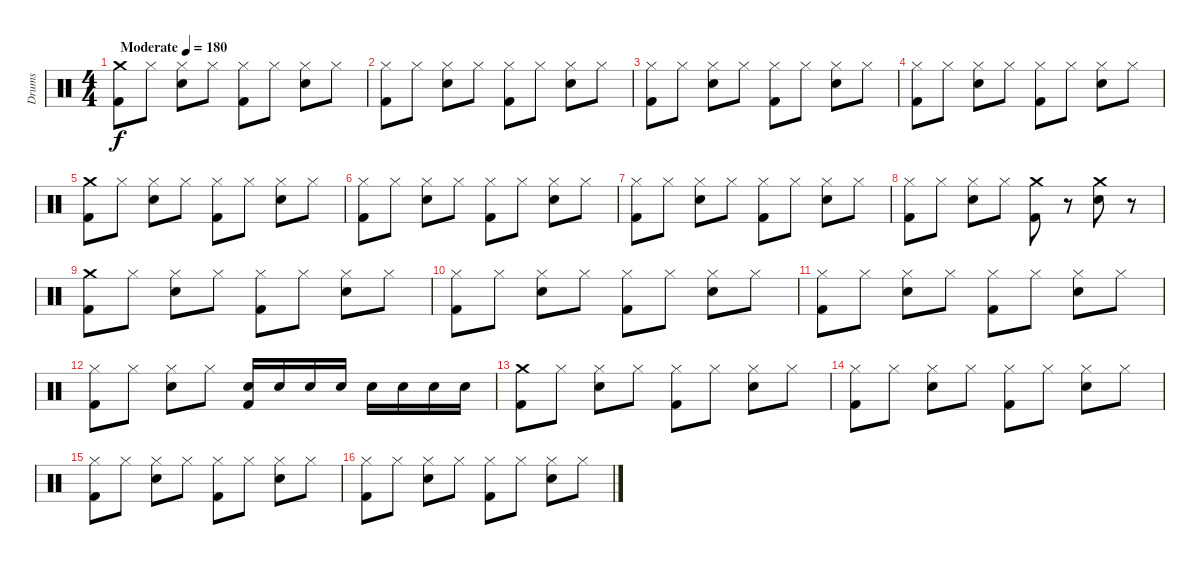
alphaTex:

\track ("Drums" "Drums") {instrument percussion}
\staff {score}
\articulation defaults
\ts (4 4)
\tempo (180 "Moderate")
\clef neutral
\ks c
("Crash medium (hit)" "Kick (hit) 2").8{dy f} "Hi-Hat (closed)".8 ("Hi-Hat (closed)" "Electric Snare (hit)").8 "Hi-Hat (closed)".8 ("Hi-Hat (closed)" "Kick (hit) 2").8 "Hi-Hat (closed)".8 ("Hi-Hat (closed)" "Electric Snare (hit)").8 "Hi-Hat (closed)".8 |
("Hi-Hat (closed)" "Kick (hit) 2").8 "Hi-Hat (closed)".8 ("Hi-Hat (closed)" "Electric Snare (hit)").8 "Hi-Hat (closed)".8 ("Hi-Hat (closed)" "Kick (hit) 2").8 "Hi-Hat (closed)".8 ("Hi-Hat (closed)" "Electric Snare (hit)").8 "Hi-Hat (closed)".8 |
("Hi-Hat (closed)" "Kick (hit) 2").8 "Hi-Hat (closed)".8 ("Hi-Hat (closed)" "Electric Snare (hit)").8 "Hi-Hat (closed)".8 ("Hi-Hat (closed)" "Kick (hit) 2").8 "Hi-Hat (closed)".8 ("Hi-Hat (closed)" "Electric Snare (hit)").8 "Hi-Hat (closed)".8 |
("Hi-Hat (closed)" "Kick (hit) 2").8 "Hi-Hat (closed)".8 ("Hi-Hat (closed)" "Electric Snare (hit)").8 "Hi-Hat (closed)".8 ("Hi-Hat (closed)" "Kick (hit) 2").8 "Hi-Hat (closed)".8 ("Hi-Hat (closed)" "Electric Snare (hit)").8 "Hi-Hat (closed)".8 |
("Crash medium (hit)" "Kick (hit) 2").8 "Hi-Hat (closed)".8 ("Hi-Hat (closed)" "Electric Snare (hit)").8 "Hi-Hat (closed)".8 ("Hi-Hat (closed)" "Kick (hit) 2").8 "Hi-Hat (closed)".8 ("Hi-Hat (closed)" "Electric Snare (hit)").8 "Hi-Hat (closed)".8 |
("Hi-Hat (closed)" "Kick (hit) 2").8 "Hi-Hat (closed)".8 ("Hi-Hat (closed)" "Electric Snare (hit)").8 "Hi-Hat (closed)".8 ("Hi-Hat (closed)" "Kick (hit) 2").8 "Hi-Hat (closed)".8 ("Hi-Hat (closed)" "Electric Snare (hit)").8 "Hi-Hat (closed)".8 |
("Hi-Hat (closed)" "Kick (hit) 2").8 "Hi-Hat (closed)".8 ("Hi-Hat (closed)" "Electric Snare (hit)").8 "Hi-Hat (closed)".8 ("Hi-Hat (closed)" "Kick (hit) 2").8 "Hi-Hat (closed)".8 ("Hi-Hat (closed)" "Electric Snare (hit)").8 "Hi-Hat (closed)".8 |
("Hi-Hat (closed)" "Kick (hit) 2").8 "Hi-Hat (closed)".8 ("Hi-Hat (closed)" "Electric Snare (hit)").8 "Hi-Hat (closed)".8 ("Crash medium (hit)" "Kick (hit) 2").8 r.8 ("Crash medium (hit)" "Electric Snare (hit)").8 r.8 |
("Crash medium (hit)" "Kick (hit) 2").8 "Hi-Hat (closed)".8 ("Hi-Hat (closed)" "Electric Snare (hit)").8 "Hi-Hat (closed)".8 ("Hi-Hat (closed)" "Kick (hit) 2").8 "Hi-Hat (closed)".8 ("Hi-Hat (closed)" "Electric Snare (hit)").8 "Hi-Hat (closed)".8 |
("Hi-Hat (closed)" "Kick (hit) 2").8 "Hi-Hat (closed)".8 ("Hi-Hat (closed)" "Electric Snare (hit)").8 "Hi-Hat (closed)".8 ("Hi-Hat (closed)" "Kick (hit) 2").8 "Hi-Hat (closed)".8 ("Hi-Hat (closed)" "Electric Snare (hit)").8 "Hi-Hat (closed)".8 |
("Hi-Hat (closed)" "Kick (hit) 2").8 "Hi-Hat (closed)".8 ("Hi-Hat (closed)" "Electric Snare (hit)").8 "Hi-Hat (closed)".8 ("Hi-Hat (closed)" "Kick (hit) 2").8 "Hi-Hat (closed)".8 ("Hi-Hat (closed)" "Electric Snare (hit)").8 "Hi-Hat (closed)".8 |
("Hi-Hat (closed)" "Kick (hit) 2").8 "Hi-Hat (closed)".8 ("Hi-Hat (closed)" "Electric Snare (hit)").8 "Hi-Hat (closed)".8 ("Electric Snare (hit)" "Kick (hit) 2").16 "Electric Snare (hit)".16 "Electric Snare (hit)".16 "Electric Snare (hit)".16 "Electric Snare (hit)".16 "Electric Snare (hit)".16 "Electric Snare (hit)".16 "Electric Snare (hit)".16 |
("Crash medium (hit)" "Kick (hit) 2").8 "Hi-Hat (closed)".8 ("Hi-Hat (closed)" "Electric Snare (hit)").8 "Hi-Hat (closed)".8 ("Hi-Hat (closed)" "Kick (hit) 2").8 "Hi-Hat (closed)".8 ("Hi-Hat (closed)" "Electric Snare (hit)").8 "Hi-Hat (closed)".8 |
("Hi-Hat (closed)" "Kick (hit) 2").8 "Hi-Hat (closed)".8 ("Hi-Hat (closed)" "Electric Snare (hit)").8 "Hi-Hat (closed)".8 ("Hi-Hat (closed)" "Kick (hit) 2").8 "Hi-Hat (closed)".8 ("Hi-Hat (closed)" "Electric Snare (hit)").8 "Hi-Hat (closed)".8 |
("Hi-Hat (closed)" "Kick (hit) 2").8 "Hi-Hat (closed)".8 ("Hi-Hat (closed)" "Electric Snare (hit)").8 "Hi-Hat (closed)".8 ("Hi-Hat (closed)" "Kick (hit) 2").8 "Hi-Hat (closed)".8 ("Hi-Hat (closed)" "Electric Snare (hit)").8 "Hi-Hat (closed)".8 |
("Hi-Hat (closed)" "Kick (hit) 2").8 "Hi-Hat (closed)".8 ("Hi-Hat (closed)" "Electric Snare (hit)").8 "Hi-Hat (closed)".8 ("Hi-Hat (closed)" "Kick (hit) 2").8 "Hi-Hat (closed)".8 ("Hi-Hat (closed)" "Electric Snare (hit)").8 "Hi-Hat (closed)".8
